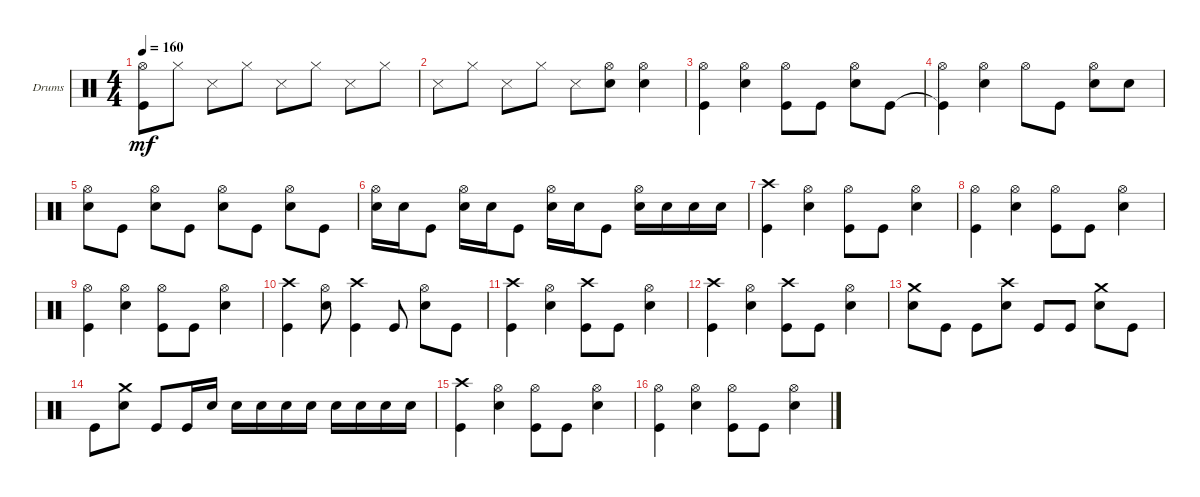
\defaultSystemsLayout 4
\bracketExtendMode groupsimilarinstruments
\firstSystemTrackNameOrientation horizontal
\otherSystemsTrackNameOrientation horizontal
\track ("Drumkit" "Drums") {instrument percussion}
\staff {score}
\articulation defaults
\ts (4 4)
\tempo 160
\clef neutral
\scale
0.333333
\ks c
("Kick (hit)" "Hi-Hat (open)").8{dy mf} "Hi-Hat (closed)".8 "Snare (side stick) 3".8 "Hi-Hat (closed)".8 "Snare (side stick) 3".8 "Hi-Hat (closed)".8 "Snare (side stick) 3".8 "Hi-Hat (closed)".8 |
\scale
0.333333 "Snare (side stick) 3".8 "Hi-Hat (closed)".8 "Snare (side stick) 3".8 "Hi-Hat (closed)".8 "Snare (side stick) 3".8 ("Hi-Hat (open)" "Snare (hit) 2").8 ("Hi-Hat (open)" "Snare (hit) 2").4 |
\scale
0.333333 ("Hi-Hat (open)" "Kick (hit)").4 ("Snare (hit) 2" "Hi-Hat (open)").4 ("Kick (hit)" "Hi-Hat (open)").8 "Kick (hit)".8 ("Snare (hit) 2" "Hi-Hat (open)").8 "Kick (hit)".8 |
\scale
0.333333 ("Kick (hit)"{t} "Hi-Hat (open)").4 ("Hi-Hat (open)" "Snare (hit) 2").4 "Hi-Hat (open)".8 "Kick (hit)".8 ("Snare (hit) 2" "Hi-Hat (open)").8 "Snare (hit) 2".8 |
\scale
0.333333 ("Snare (hit) 2" "Hi-Hat (open)").8 "Kick (hit)".8 ("Hi-Hat (open)" "Snare (hit) 2").8 "Kick (hit)".8 ("Snare (hit) 2" "Hi-Hat (open)").8 "Kick (hit)".8 ("Snare (hit) 2" "Hi-Hat (open)").8 "Kick (hit)".8 |
\scale
0.333333 ("Snare (hit) 2" "Hi-Hat (open)").16 "Snare (hit) 2".16 "Kick (hit)".8 ("Snare (hit) 2" "Hi-Hat (open)").16 "Snare (hit) 2".16 "Kick (hit)".8 ("Snare (hit) 2" "Hi-Hat (open)").16 "Snare (hit) 2".16 "Kick (hit)".8 ("Snare (hit) 2" "Hi-Hat (open)").16 "Snare (hit) 2".16 "Snare (hit) 2".16 "Snare (hit) 2".16 |
\scale
0.333333 ("Crash high (hit)" "Kick (hit)").4 ("Snare (hit) 2" "Hi-Hat (open)").4 ("Kick (hit)" "Hi-Hat (open)").8 "Kick (hit)".8 ("Snare (hit) 2" "Hi-Hat (open)").4 |
\scale
0.333333 ("Kick (hit)" "Hi-Hat (open)").4 ("Snare (hit) 2" "Hi-Hat (open)").4 ("Kick (hit)" "Hi-Hat (open)").8 "Kick (hit)".8 ("Snare (hit) 2" "Hi-Hat (open)").4 |
\scale
0.333333 ("Kick (hit)" "Hi-Hat (open)").4 ("Snare (hit) 2" "Hi-Hat (open)").4 ("Kick (hit)" "Hi-Hat (open)").8 "Kick (hit)".8 ("Snare (hit) 2" "Hi-Hat (open)").4 |
\scale
0.333333 ("Kick (hit)" "Crash high (hit)").4 ("Snare (hit) 2" "Hi-Hat (open)").8 ("Kick (hit)" "Crash high (hit)").4 "Kick (hit)".8 ("Snare (hit) 2" "Hi-Hat (open)").8 "Kick (hit)".8 |
\scale
0.333333 ("Crash high (hit)" "Kick (hit)").4 ("Snare (hit) 2" "Hi-Hat (open)").4 ("Kick (hit)" "Crash high (hit)").8 "Kick (hit)".8 ("Snare (hit) 2" "Hi-Hat (open)").4 |
\scale
0.333333 ("Crash high (hit)" "Kick (hit)").4 ("Snare (hit) 2" "Hi-Hat (open)").4 ("Kick (hit)" "Crash high (hit)").8 "Kick (hit)".8 ("Snare (hit) 2" "Hi-Hat (open)").4 |
\scale
0.333333 ("Snare (hit) 2" "Crash medium (hit)").8 "Kick (hit)".8 "Kick (hit)".8 ("Snare (hit) 2" "Crash high (hit)").8 "Kick (hit)".8 "Kick (hit)".8 ("Snare (hit) 2" "Crash medium (hit)").8 "Kick (hit)".8 |
\scale
0.333333 "Kick (hit)".8 ("Snare (hit) 2" "Crash medium (hit)").8 "Kick (hit)".8 "Kick (hit)".16 "Snare (hit) 2".16 "Snare (hit) 2".16 "Snare (hit) 2".16 "Snare (hit) 2".16 "Snare (hit) 2".16 "Snare (hit) 2".16 "Snare (hit) 2".16 "Snare (hit) 2".16 "Snare (hit) 2".16 |
\scale
0.333333 ("Crash high (hit)" "Kick (hit)").4 ("Snare (hit) 2" "Hi-Hat (open)").4 ("Kick (hit)" "Hi-Hat (open)").8 "Kick (hit)".8 ("Snare (hit) 2" "Hi-Hat (open)").4 |
\scale
0.333333 ("Kick (hit)" "Hi-Hat (open)").4 ("Snare (hit) 2" "Hi-Hat (open)").4 ("Kick (hit)" "Hi-Hat (open)").8 "Kick (hit)".8 ("Snare (hit) 2" "Hi-Hat (open)").4
